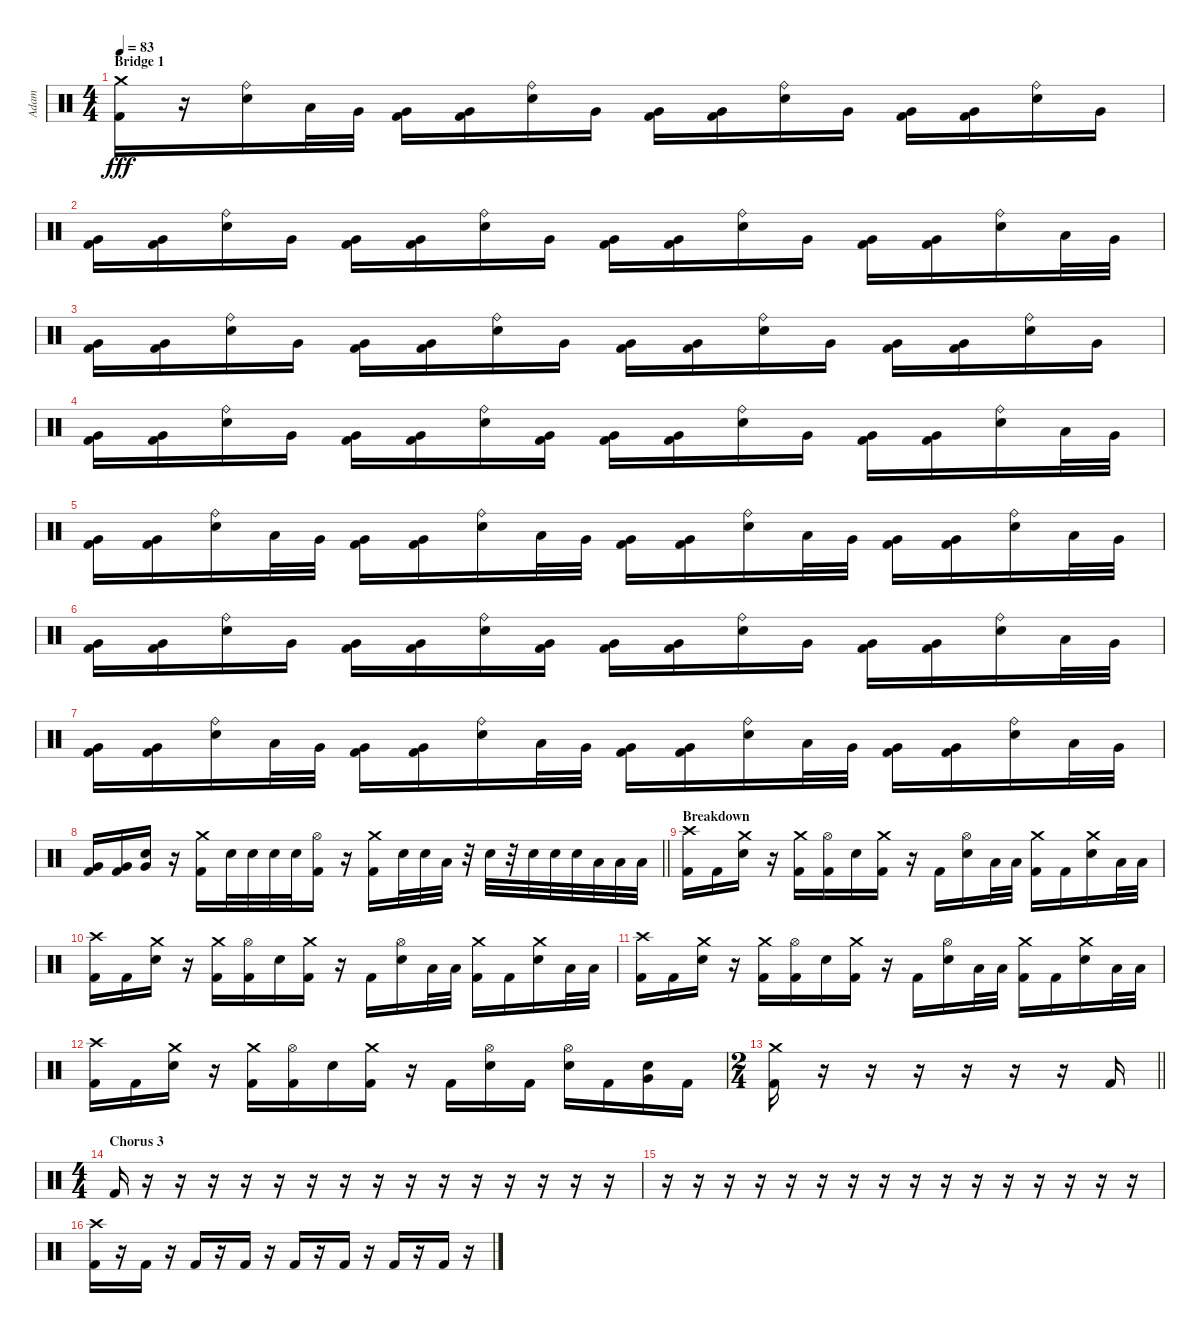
\track ("Adam" "Adam") {instrument percussion}
\staff {score}
\articulation defaults
\ts (4 4)
\section ("" "Bridge 1")
\tempo 83
\clef neutral
\ks c
("Crash medium (hit)" "Kick (hit) 2").16{dy fff} r.16 ("Ride (bell)" "Electric Snare (hit)").16 "Low Tom (hit)".32 "Very Low Tom (hit)".32 ("Very Low Tom (hit)" "Kick (hit) 2").16 ("Very Low Tom (hit)" "Kick (hit) 2").16 ("Ride (bell)" "Electric Snare (hit)").16 "Very Low Tom (hit)".16 ("Very Low Tom (hit)" "Kick (hit) 2").16 ("Very Low Tom (hit)" "Kick (hit) 2").16 ("Ride (bell)" "Electric Snare (hit)").16 "Very Low Tom (hit)".16 ("Very Low Tom (hit)" "Kick (hit) 2").16 ("Very Low Tom (hit)" "Kick (hit) 2").16 ("Ride (bell)" "Electric Snare (hit)").16 "Very Low Tom (hit)".16 |
("Very Low Tom (hit)" "Kick (hit) 2").16 ("Very Low Tom (hit)" "Kick (hit) 2").16 ("Ride (bell)" "Electric Snare (hit)").16 "Very Low Tom (hit)".16 ("Very Low Tom (hit)" "Kick (hit) 2").16 ("Very Low Tom (hit)" "Kick (hit) 2").16 ("Ride (bell)" "Electric Snare (hit)").16 "Very Low Tom (hit)".16 ("Very Low Tom (hit)" "Kick (hit) 2").16 ("Very Low Tom (hit)" "Kick (hit) 2").16 ("Ride (bell)" "Electric Snare (hit)").16 "Very Low Tom (hit)".16 ("Very Low Tom (hit)" "Kick (hit) 2").16 ("Very Low Tom (hit)" "Kick (hit) 2").16 ("Ride (bell)" "Electric Snare (hit)").16 "Low Tom (hit)".32 "Very Low Tom (hit)".32 |
("Very Low Tom (hit)" "Kick (hit) 2").16 ("Very Low Tom (hit)" "Kick (hit) 2").16 ("Ride (bell)" "Electric Snare (hit)").16 "Very Low Tom (hit)".16 ("Very Low Tom (hit)" "Kick (hit) 2").16 ("Very Low Tom (hit)" "Kick (hit) 2").16 ("Ride (bell)" "Electric Snare (hit)").16 "Very Low Tom (hit)".16 ("Very Low Tom (hit)" "Kick (hit) 2").16 ("Very Low Tom (hit)" "Kick (hit) 2").16 ("Ride (bell)" "Electric Snare (hit)").16 "Very Low Tom (hit)".16 ("Very Low Tom (hit)" "Kick (hit) 2").16 ("Very Low Tom (hit)" "Kick (hit) 2").16 ("Ride (bell)" "Electric Snare (hit)").16 "Very Low Tom (hit)".16 |
("Very Low Tom (hit)" "Kick (hit) 2").16 ("Very Low Tom (hit)" "Kick (hit) 2").16 ("Ride (bell)" "Electric Snare (hit)").16 "Very Low Tom (hit)".16 ("Very Low Tom (hit)" "Kick (hit) 2").16 ("Very Low Tom (hit)" "Kick (hit) 2").16 ("Ride (bell)" "Electric Snare (hit)").16 ("Very Low Tom (hit)" "Kick (hit) 2").16 ("Very Low Tom (hit)" "Kick (hit) 2").16 ("Very Low Tom (hit)" "Kick (hit) 2").16 ("Ride (bell)" "Electric Snare (hit)").16 "Very Low Tom (hit)".16 ("Very Low Tom (hit)" "Kick (hit) 2").16 ("Very Low Tom (hit)" "Kick (hit) 2").16 ("Ride (bell)" "Electric Snare (hit)").16 "Low Tom (hit)".32 "Very Low Tom (hit)".32 |
("Very Low Tom (hit)" "Kick (hit) 2").16 ("Very Low Tom (hit)" "Kick (hit) 2").16 ("Ride (bell)" "Electric Snare (hit)").16 "Low Tom (hit)".32 "Very Low Tom (hit)".32 ("Very Low Tom (hit)" "Kick (hit) 2").16 ("Very Low Tom (hit)" "Kick (hit) 2").16 ("Ride (bell)" "Electric Snare (hit)").16 "Low Tom (hit)".32 "Very Low Tom (hit)".32 ("Very Low Tom (hit)" "Kick (hit) 2").16 ("Very Low Tom (hit)" "Kick (hit) 2").16 ("Ride (bell)" "Electric Snare (hit)").16 "Low Tom (hit)".32 "Very Low Tom (hit)".32 ("Very Low Tom (hit)" "Kick (hit) 2").16 ("Very Low Tom (hit)" "Kick (hit) 2").16 ("Ride (bell)" "Electric Snare (hit)").16 "Low Tom (hit)".32 "Very Low Tom (hit)".32 |
("Very Low Tom (hit)" "Kick (hit) 2").16 ("Very Low Tom (hit)" "Kick (hit) 2").16 ("Ride (bell)" "Electric Snare (hit)").16 "Very Low Tom (hit)".16 ("Very Low Tom (hit)" "Kick (hit) 2").16 ("Very Low Tom (hit)" "Kick (hit) 2").16 ("Ride (bell)" "Electric Snare (hit)").16 ("Very Low Tom (hit)" "Kick (hit) 2").16 ("Very Low Tom (hit)" "Kick (hit) 2").16 ("Very Low Tom (hit)" "Kick (hit) 2").16 ("Ride (bell)" "Electric Snare (hit)").16 "Very Low Tom (hit)".16 ("Very Low Tom (hit)" "Kick (hit) 2").16 ("Very Low Tom (hit)" "Kick (hit) 2").16 ("Ride (bell)" "Electric Snare (hit)").16 "Low Tom (hit)".32 "Very Low Tom (hit)".32 |
("Very Low Tom (hit)" "Kick (hit) 2").16 ("Very Low Tom (hit)" "Kick (hit) 2").16 ("Ride (bell)" "Electric Snare (hit)").16 "Low Tom (hit)".32 "Very Low Tom (hit)".32 ("Very Low Tom (hit)" "Kick (hit) 2").16 ("Very Low Tom (hit)" "Kick (hit) 2").16 ("Ride (bell)" "Electric Snare (hit)").16 "Low Tom (hit)".32 "Very Low Tom (hit)".32 ("Very Low Tom (hit)" "Kick (hit) 2").16 ("Very Low Tom (hit)" "Kick (hit) 2").16 ("Ride (bell)" "Electric Snare (hit)").16 "Low Tom (hit)".32 "Very Low Tom (hit)".32 ("Very Low Tom (hit)" "Kick (hit) 2").16 ("Very Low Tom (hit)" "Kick (hit) 2").16 ("Ride (bell)" "Electric Snare (hit)").16 "Low Tom (hit)".32 "Very Low Tom (hit)".32 |
\barLineRight lightlight
("Very Low Tom (hit)" "Kick (hit) 2").16 ("Very Low Tom (hit)" "Kick (hit) 2").16 ("Electric Snare (hit)" "Very Low Tom (hit)").16 r.16 ("Crash medium (hit)" "Kick (hit) 2").16 "Electric Snare (hit)".32 "Electric Snare (hit)".32 "Electric Snare (hit)".32 "Electric Snare (hit)".32 ("Hi-Hat (open)" "Kick (hit) 2").16 r.16 ("Crash medium (hit)" "Kick (hit) 2").16 "Electric Snare (hit)".32 "Electric Snare (hit)".32 "Low Tom (hit)".32 r.32 "Electric Snare (hit)".32 r.32 "Electric Snare (hit)".32 "Electric Snare (hit)".32 "Electric Snare (hit)".32 "Low Tom (hit)".32 "Low Tom (hit)".32 "Low Tom (hit)".32 |
\section ("" "Breakdown")
("Crash high (hit)" "Kick (hit) 2").16 "Kick (hit) 2".16 ("Crash medium (hit)" "Electric Snare (hit)").16 r.16 ("Crash medium (hit)" "Kick (hit) 2").16 ("Hi-Hat (open)" "Kick (hit) 2").16 "Electric Snare (hit)".16 ("Crash medium (hit)" "Kick (hit) 2").16 r.16 "Kick (hit) 2".16 ("Hi-Hat (open)" "Electric Snare (hit)").16 "Low Tom (hit)".32 "Low Tom (hit)".32 ("Crash medium (hit)" "Kick (hit) 2").16 "Kick (hit) 2".16 ("Crash medium (hit)" "Electric Snare (hit)").16 "Low Tom (hit)".32 "Low Tom (hit)".32 |
("Crash high (hit)" "Kick (hit) 2").16 "Kick (hit) 2".16 ("Crash medium (hit)" "Electric Snare (hit)").16 r.16 ("Crash medium (hit)" "Kick (hit) 2").16 ("Hi-Hat (open)" "Kick (hit) 2").16 "Electric Snare (hit)".16 ("Crash medium (hit)" "Kick (hit) 2").16 r.16 "Kick (hit) 2".16 ("Hi-Hat (open)" "Electric Snare (hit)").16 "Low Tom (hit)".32 "Low Tom (hit)".32 ("Crash medium (hit)" "Kick (hit) 2").16 "Kick (hit) 2".16 ("Crash medium (hit)" "Electric Snare (hit)").16 "Low Tom (hit)".32 "Low Tom (hit)".32 |
("Crash high (hit)" "Kick (hit) 2").16 "Kick (hit) 2".16 ("Crash medium (hit)" "Electric Snare (hit)").16 r.16 ("Crash medium (hit)" "Kick (hit) 2").16 ("Hi-Hat (open)" "Kick (hit) 2").16 "Electric Snare (hit)".16 ("Crash medium (hit)" "Kick (hit) 2").16 r.16 "Kick (hit) 2".16 ("Hi-Hat (open)" "Electric Snare (hit)").16 "Low Tom (hit)".32 "Low Tom (hit)".32 ("Crash medium (hit)" "Kick (hit) 2").16 "Kick (hit) 2".16 ("Crash medium (hit)" "Electric Snare (hit)").16 "Low Tom (hit)".32 "Low Tom (hit)".32 |
("Crash high (hit)" "Kick (hit) 2").16 "Kick (hit) 2".16 ("Crash medium (hit)" "Electric Snare (hit)").16 r.16 ("Crash medium (hit)" "Kick (hit) 2").16 ("Hi-Hat (open)" "Kick (hit) 2").16 "Electric Snare (hit)".16 ("Crash medium (hit)" "Kick (hit) 2").16 r.16 "Kick (hit) 2".16 ("Hi-Hat (open)" "Electric Snare (hit)").16 "Kick (hit) 2".16 ("Hi-Hat (open)" "Electric Snare (hit)").16 "Kick (hit) 2".16 ("Electric Snare (hit)" "Very Low Tom (hit)").16 "Kick (hit) 2".16 |
\ts (2 4)
\barLineRight lightlight
("Crash medium (hit)" "Kick (hit) 2").16 r.16 r.16 r.16 r.16 r.16 r.16 "Kick (hit) 2".16 |
\ts (4 4)
\section ("" "Chorus 3")
"Kick (hit) 2".16 r.16 r.16 r.16 r.16 r.16 r.16 r.16 r.16 r.16 r.16 r.16 r.16 r.16 r.16 r.16 |
r.16 r.16 r.16 r.16 r.16 r.16 r.16 r.16 r.16 r.16 r.16 r.16 r.16 r.16 r.16 r.16 |
("Crash high (hit)" "Kick (hit) 2").16 r.16 "Kick (hit) 2".16 r.16 "Kick (hit) 2".16 r.16 "Kick (hit) 2".16 r.16 "Kick (hit) 2".16 r.16 "Kick (hit) 2".16 r.16 "Kick (hit) 2".16 r.16 "Kick (hit) 2".16 r.16
